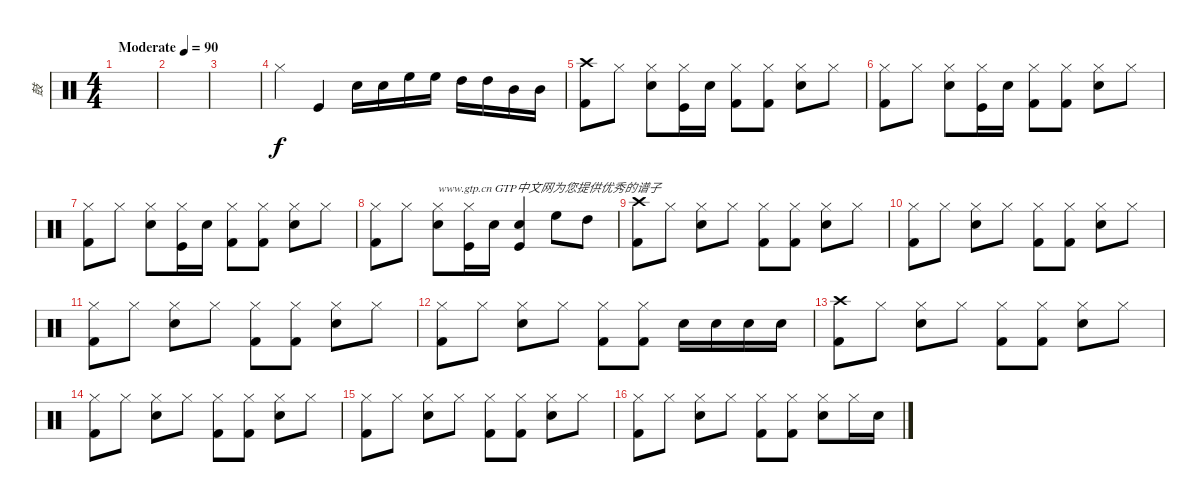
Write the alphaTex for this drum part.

\track ("鼓" "鼓") {instrument percussion}
\staff {score}
\articulation defaults
\ts (4 4)
\tempo (90 "Moderate")
\clef neutral
\ks c
|
|
|
"Hi-Hat (closed)".4 "Kick (hit)".4 "Snare (hit) 2".16 "Snare (hit) 2".16 "High Floor Tom (hit)".16 "High Floor Tom (hit)".16 "High Tom (hit)".16 "High Tom (hit)".16 "Mid Tom (hit)".16 "Mid Tom (hit)".16 |
("Crash high (hit)" "Kick (hit) 2").8 "Hi-Hat (closed)".8 ("Hi-Hat (closed)" "Snare (hit) 2").8 ("Hi-Hat (closed)" "Kick (hit)").16 "Snare (hit) 2".16 ("Hi-Hat (closed)" "Kick (hit) 2").8 ("Hi-Hat (closed)" "Kick (hit) 2").8 ("Hi-Hat (closed)" "Snare (hit) 2").8 "Hi-Hat (closed)".8 |
("Hi-Hat (closed)" "Kick (hit) 2").8 "Hi-Hat (closed)".8 ("Hi-Hat (closed)" "Snare (hit) 2").8 ("Hi-Hat (closed)" "Kick (hit)").16 "Snare (hit) 2".16 ("Hi-Hat (closed)" "Kick (hit) 2").8 ("Hi-Hat (closed)" "Kick (hit) 2").8 ("Hi-Hat (closed)" "Snare (hit) 2").8 "Hi-Hat (closed)".8 |
("Hi-Hat (closed)" "Kick (hit) 2").8 "Hi-Hat (closed)".8 ("Hi-Hat (closed)" "Snare (hit) 2").8 ("Hi-Hat (closed)" "Kick (hit)").16 "Snare (hit) 2".16 ("Hi-Hat (closed)" "Kick (hit) 2").8 ("Hi-Hat (closed)" "Kick (hit) 2").8 ("Hi-Hat (closed)" "Snare (hit) 2").8 "Hi-Hat (closed)".8 |
("Hi-Hat (closed)" "Kick (hit) 2").8 "Hi-Hat (closed)".8 ("Hi-Hat (closed)" "Snare (hit) 2").8{txt "www.gtp.cn GTP中文网为您提供优秀的谱子"} ("Hi-Hat (closed)" "Kick (hit)").16 "Snare (hit) 2".16 ("Snare (hit) 2" "Kick (hit)").4 "High Floor Tom (hit)".8 "High Tom (hit)".8 |
("Crash high (hit)" "Kick (hit) 2").8 "Hi-Hat (closed)".8 ("Hi-Hat (closed)" "Snare (hit) 2").8 "Hi-Hat (closed)".8 ("Hi-Hat (closed)" "Kick (hit) 2").8 ("Hi-Hat (closed)" "Kick (hit) 2").8 ("Hi-Hat (closed)" "Snare (hit) 2").8 "Hi-Hat (closed)".8 |
("Hi-Hat (closed)" "Kick (hit) 2").8 "Hi-Hat (closed)".8 ("Hi-Hat (closed)" "Snare (hit) 2").8 "Hi-Hat (closed)".8 ("Hi-Hat (closed)" "Kick (hit) 2").8 ("Hi-Hat (closed)" "Kick (hit) 2").8 ("Hi-Hat (closed)" "Snare (hit) 2").8 "Hi-Hat (closed)".8 |
("Hi-Hat (closed)" "Kick (hit) 2").8 "Hi-Hat (closed)".8 ("Hi-Hat (closed)" "Snare (hit) 2").8 "Hi-Hat (closed)".8 ("Hi-Hat (closed)" "Kick (hit) 2").8 ("Hi-Hat (closed)" "Kick (hit) 2").8 ("Hi-Hat (closed)" "Snare (hit) 2").8 "Hi-Hat (closed)".8 |
("Hi-Hat (closed)" "Kick (hit) 2").8 "Hi-Hat (closed)".8 ("Hi-Hat (closed)" "Snare (hit) 2").8 "Hi-Hat (closed)".8 ("Hi-Hat (closed)" "Kick (hit) 2").8 ("Hi-Hat (closed)" "Kick (hit) 2").8 "Snare (hit) 2".16 "Snare (hit) 2".16 "Snare (hit) 2".16 "Snare (hit) 2".16 |
("Crash high (hit)" "Kick (hit) 2").8 "Hi-Hat (closed)".8 ("Hi-Hat (closed)" "Snare (hit) 2").8 "Hi-Hat (closed)".8 ("Hi-Hat (closed)" "Kick (hit) 2").8 ("Hi-Hat (closed)" "Kick (hit) 2").8 ("Hi-Hat (closed)" "Snare (hit) 2").8 "Hi-Hat (closed)".8 |
("Hi-Hat (closed)" "Kick (hit) 2").8 "Hi-Hat (closed)".8 ("Hi-Hat (closed)" "Snare (hit) 2").8 "Hi-Hat (closed)".8 ("Hi-Hat (closed)" "Kick (hit) 2").8 ("Hi-Hat (closed)" "Kick (hit) 2").8 ("Hi-Hat (closed)" "Snare (hit) 2").8 "Hi-Hat (closed)".8 |
("Hi-Hat (closed)" "Kick (hit) 2").8 "Hi-Hat (closed)".8 ("Hi-Hat (closed)" "Snare (hit) 2").8 "Hi-Hat (closed)".8 ("Hi-Hat (closed)" "Kick (hit) 2").8 ("Hi-Hat (closed)" "Kick (hit) 2").8 ("Hi-Hat (closed)" "Snare (hit) 2").8 "Hi-Hat (closed)".8 |
("Hi-Hat (closed)" "Kick (hit) 2").8 "Hi-Hat (closed)".8 ("Hi-Hat (closed)" "Snare (hit) 2").8 "Hi-Hat (closed)".8 ("Hi-Hat (closed)" "Kick (hit) 2").8 ("Hi-Hat (closed)" "Kick (hit) 2").8 ("Hi-Hat (closed)" "Snare (hit) 2").8 "Hi-Hat (closed)".16 "Snare (hit) 2".16
